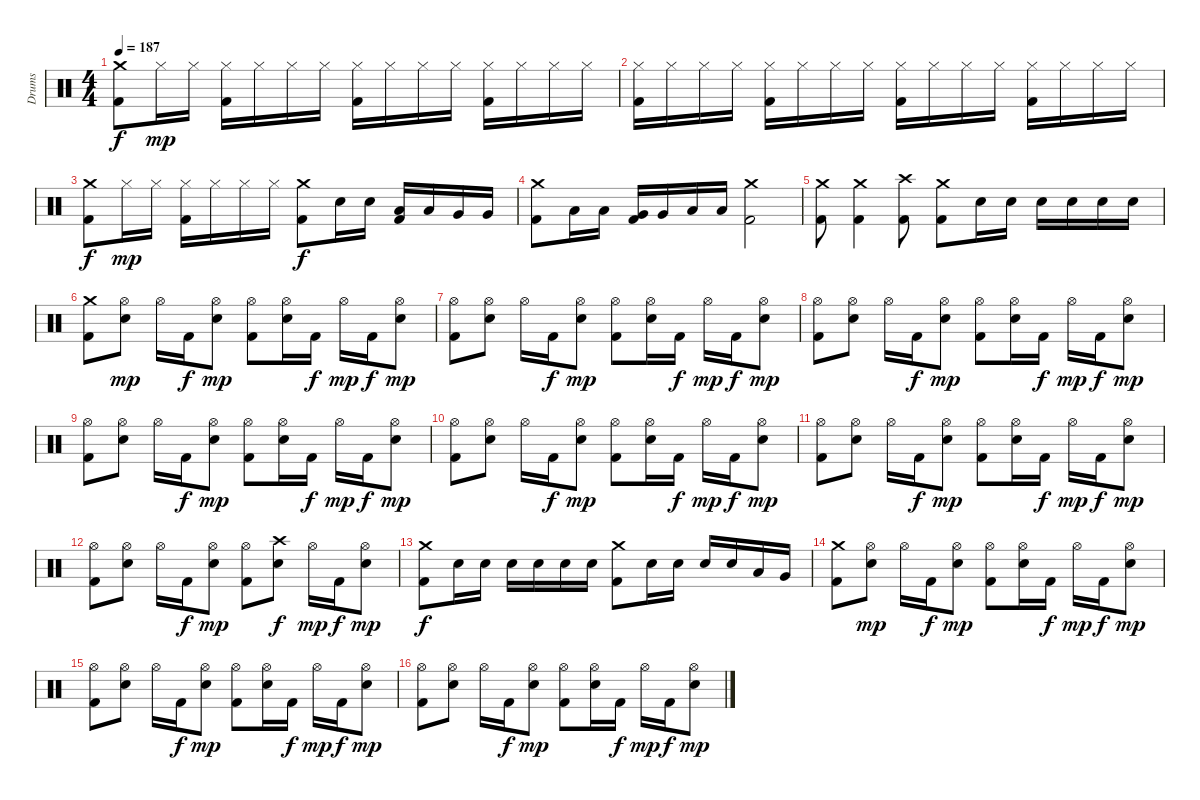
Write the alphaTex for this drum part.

\track ("Drums" "Drums") {instrument percussion}
\staff {score}
\articulation defaults
\ts (4 4)
\tempo 187
\clef neutral
\ks c
("Crash medium (hit)" "Kick (hit) 2").8{dy f} "Hi-Hat (closed)".16{dy mp} "Hi-Hat (closed)".16 ("Hi-Hat (closed)" "Kick (hit) 2").16 "Hi-Hat (closed)".16 "Hi-Hat (closed)".16 "Hi-Hat (closed)".16 ("Hi-Hat (closed)" "Kick (hit) 2").16 "Hi-Hat (closed)".16 "Hi-Hat (closed)".16 "Hi-Hat (closed)".16 ("Hi-Hat (closed)" "Kick (hit) 2").16 "Hi-Hat (closed)".16 "Hi-Hat (closed)".16 "Hi-Hat (closed)".16 |
("Hi-Hat (closed)" "Kick (hit) 2").16 "Hi-Hat (closed)".16 "Hi-Hat (closed)".16 "Hi-Hat (closed)".16 ("Hi-Hat (closed)" "Kick (hit) 2").16 "Hi-Hat (closed)".16 "Hi-Hat (closed)".16 "Hi-Hat (closed)".16 ("Hi-Hat (closed)" "Kick (hit) 2").16 "Hi-Hat (closed)".16 "Hi-Hat (closed)".16 "Hi-Hat (closed)".16 ("Hi-Hat (closed)" "Kick (hit) 2").16 "Hi-Hat (closed)".16 "Hi-Hat (closed)".16 "Hi-Hat (closed)".16 |
("Crash medium (hit)" "Kick (hit) 2").8{dy f} "Hi-Hat (closed)".16{dy mp} "Hi-Hat (closed)".16 ("Hi-Hat (closed)" "Kick (hit) 2").16 "Hi-Hat (closed)".16 "Hi-Hat (closed)".16 "Hi-Hat (closed)".16 ("Crash medium (hit)" "Kick (hit) 2").8{dy f} "Snare (hit) 2".16 "Snare (hit) 2".16 ("Low Tom (hit)" "Kick (hit) 2").16 "Low Tom (hit)".16 "Very Low Tom (hit)".16 "Very Low Tom (hit)".16 |
("Crash medium (hit)" "Kick (hit) 2").8 "Low Tom (hit)".16 "Low Tom (hit)".16 ("Very Low Tom (hit)" "Kick (hit) 2").16 "Very Low Tom (hit)".16 "Low Floor Tom (hit)".16 "Low Floor Tom (hit)".16 ("Crash medium (hit)" "Kick (hit) 2").2 |
("Crash medium (hit)" "Kick (hit) 2").8 ("Crash medium (hit)" "Kick (hit) 2").4 ("Crash high (hit)" "Kick (hit) 2").8 ("Crash medium (hit)" "Kick (hit) 2").8 "Snare (hit) 2".16 "Snare (hit) 2".16 "Snare (hit) 2".16 "Snare (hit) 2".16 "Snare (hit) 2".16 "Snare (hit) 2".16 |
("Crash medium (hit)" "Kick (hit) 2").8 ("Hi-Hat (open)" "Snare (hit) 2").8{dy mp} "Hi-Hat (open)".16 "Kick (hit) 2".16{dy f} ("Hi-Hat (open)" "Snare (hit) 2").8{dy mp} ("Hi-Hat (open)" "Kick (hit) 2").8 ("Hi-Hat (open)" "Snare (hit) 2").16 "Kick (hit) 2".16{dy f} "Hi-Hat (open)".16{dy mp} "Kick (hit) 2".16{dy f} ("Hi-Hat (open)" "Snare (hit) 2").8{dy mp} |
("Hi-Hat (open)" "Kick (hit) 2").8 ("Hi-Hat (open)" "Snare (hit) 2").8 "Hi-Hat (open)".16 "Kick (hit) 2".16{dy f} ("Hi-Hat (open)" "Snare (hit) 2").8{dy mp} ("Hi-Hat (open)" "Kick (hit) 2").8 ("Hi-Hat (open)" "Snare (hit) 2").16 "Kick (hit) 2".16{dy f} "Hi-Hat (open)".16{dy mp} "Kick (hit) 2".16{dy f} ("Hi-Hat (open)" "Snare (hit) 2").8{dy mp} |
("Hi-Hat (open)" "Kick (hit) 2").8 ("Hi-Hat (open)" "Snare (hit) 2").8 "Hi-Hat (open)".16 "Kick (hit) 2".16{dy f} ("Hi-Hat (open)" "Snare (hit) 2").8{dy mp} ("Hi-Hat (open)" "Kick (hit) 2").8 ("Hi-Hat (open)" "Snare (hit) 2").16 "Kick (hit) 2".16{dy f} "Hi-Hat (open)".16{dy mp} "Kick (hit) 2".16{dy f} ("Hi-Hat (open)" "Snare (hit) 2").8{dy mp} |
("Hi-Hat (open)" "Kick (hit) 2").8 ("Hi-Hat (open)" "Snare (hit) 2").8 "Hi-Hat (open)".16 "Kick (hit) 2".16{dy f} ("Hi-Hat (open)" "Snare (hit) 2").8{dy mp} ("Hi-Hat (open)" "Kick (hit) 2").8 ("Hi-Hat (open)" "Snare (hit) 2").16 "Kick (hit) 2".16{dy f} "Hi-Hat (open)".16{dy mp} "Kick (hit) 2".16{dy f} ("Hi-Hat (open)" "Snare (hit) 2").8{dy mp} |
("Hi-Hat (open)" "Kick (hit) 2").8 ("Hi-Hat (open)" "Snare (hit) 2").8 "Hi-Hat (open)".16 "Kick (hit) 2".16{dy f} ("Hi-Hat (open)" "Snare (hit) 2").8{dy mp} ("Hi-Hat (open)" "Kick (hit) 2").8 ("Hi-Hat (open)" "Snare (hit) 2").16 "Kick (hit) 2".16{dy f} "Hi-Hat (open)".16{dy mp} "Kick (hit) 2".16{dy f} ("Hi-Hat (open)" "Snare (hit) 2").8{dy mp} |
("Hi-Hat (open)" "Kick (hit) 2").8 ("Hi-Hat (open)" "Snare (hit) 2").8 "Hi-Hat (open)".16 "Kick (hit) 2".16{dy f} ("Hi-Hat (open)" "Snare (hit) 2").8{dy mp} ("Hi-Hat (open)" "Kick (hit) 2").8 ("Hi-Hat (open)" "Snare (hit) 2").16 "Kick (hit) 2".16{dy f} "Hi-Hat (open)".16{dy mp} "Kick (hit) 2".16{dy f} ("Hi-Hat (open)" "Snare (hit) 2").8{dy mp} |
("Hi-Hat (open)" "Kick (hit) 2").8 ("Hi-Hat (open)" "Snare (hit) 2").8 "Hi-Hat (open)".16 "Kick (hit) 2".16{dy f} ("Hi-Hat (open)" "Snare (hit) 2").8{dy mp} ("Hi-Hat (open)" "Kick (hit) 2").8 ("Crash high (hit)" "Snare (hit) 2").8{dy f} "Hi-Hat (open)".16{dy mp} "Kick (hit) 2".16{dy f} ("Hi-Hat (open)" "Snare (hit) 2").8{dy mp} |
("Crash medium (hit)" "Kick (hit) 2").8{dy f} "Snare (hit) 2".16 "Snare (hit) 2".16 "Snare (hit) 2".16 "Snare (hit) 2".16 "Snare (hit) 2".16 "Snare (hit) 2".16 ("Crash medium (hit)" "Kick (hit) 2").8 "Snare (hit) 2".16 "Snare (hit) 2".16 "Snare (hit) 2".16 "Snare (hit) 2".16 "Low Tom (hit)".16 "Very Low Tom (hit)".16 |
("Crash medium (hit)" "Kick (hit) 2").8 ("Hi-Hat (open)" "Snare (hit) 2").8{dy mp} "Hi-Hat (open)".16 "Kick (hit) 2".16{dy f} ("Hi-Hat (open)" "Snare (hit) 2").8{dy mp} ("Hi-Hat (open)" "Kick (hit) 2").8 ("Hi-Hat (open)" "Snare (hit) 2").16 "Kick (hit) 2".16{dy f} "Hi-Hat (open)".16{dy mp} "Kick (hit) 2".16{dy f} ("Hi-Hat (open)" "Snare (hit) 2").8{dy mp} |
("Hi-Hat (open)" "Kick (hit) 2").8 ("Hi-Hat (open)" "Snare (hit) 2").8 "Hi-Hat (open)".16 "Kick (hit) 2".16{dy f} ("Hi-Hat (open)" "Snare (hit) 2").8{dy mp} ("Hi-Hat (open)" "Kick (hit) 2").8 ("Hi-Hat (open)" "Snare (hit) 2").16 "Kick (hit) 2".16{dy f} "Hi-Hat (open)".16{dy mp} "Kick (hit) 2".16{dy f} ("Hi-Hat (open)" "Snare (hit) 2").8{dy mp} |
("Hi-Hat (open)" "Kick (hit) 2").8 ("Hi-Hat (open)" "Snare (hit) 2").8 "Hi-Hat (open)".16 "Kick (hit) 2".16{dy f} ("Hi-Hat (open)" "Snare (hit) 2").8{dy mp} ("Hi-Hat (open)" "Kick (hit) 2").8 ("Hi-Hat (open)" "Snare (hit) 2").16 "Kick (hit) 2".16{dy f} "Hi-Hat (open)".16{dy mp} "Kick (hit) 2".16{dy f} ("Hi-Hat (open)" "Snare (hit) 2").8{dy mp}
